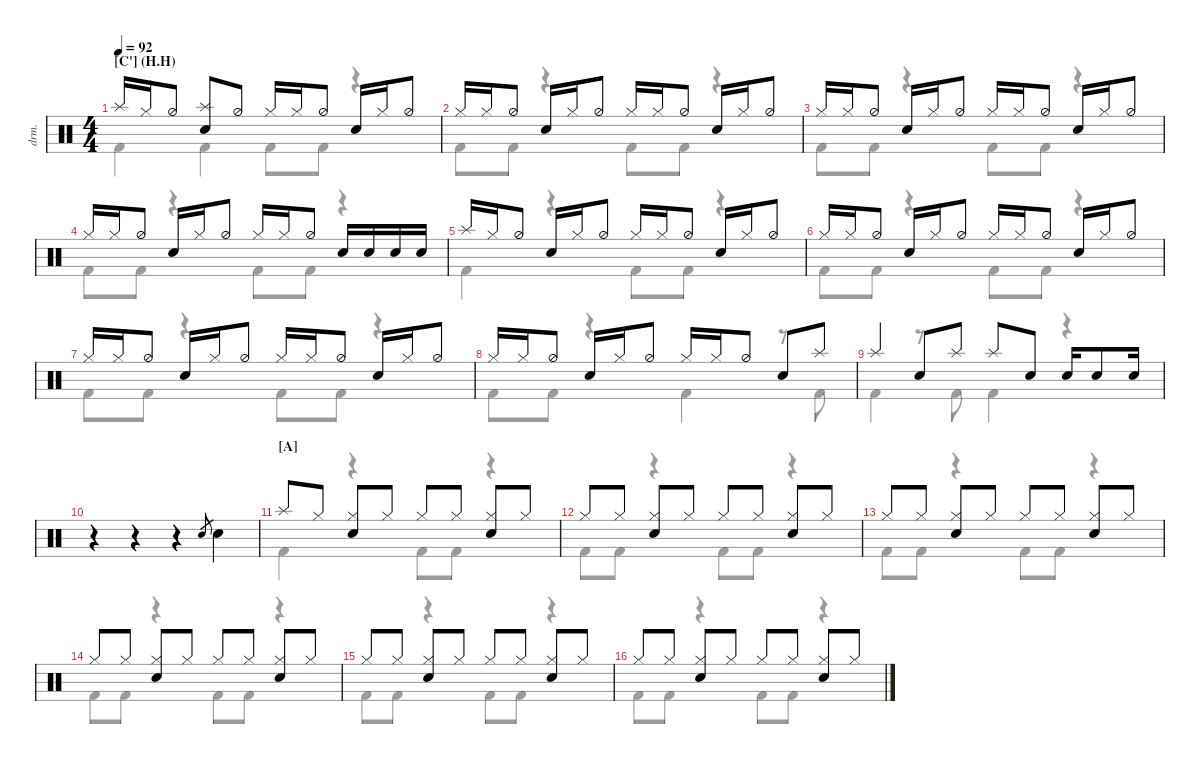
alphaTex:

\defaultSystemsLayout 4
\hideDynamics
\bracketExtendMode nobrackets
\track ("Drumkit" "drm.") {defaultSystemsLayout 4 instrument percussion}
\staff {score}
\articulation defaults
\voice
\ts (4 4)
\section ("C'" "(H.H)")
\tempo 92
\clef neutral
\ks c "Splash (hit)".16{dy mf beam Up} "Hi-Hat (closed)".16{beam Up} "Hi-Hat (half)".8{beam Up}
("Splash (hit)" "Snare (hit) 2").8{beam Up} "Hi-Hat (half)".8{beam Up} "Hi-Hat (closed)".16{beam Up} "Hi-Hat (closed)".16{beam Up} "Hi-Hat (half)".8{beam Up} "Snare (hit) 2".16{beam Up} "Hi-Hat (closed)".16{beam Up} "Hi-Hat (half)".8{beam Up} |
"Hi-Hat (closed)".16{beam Up} "Hi-Hat (closed)".16{beam Up} "Hi-Hat (half)".8{beam Up} "Snare (hit) 2".16{beam Up} "Hi-Hat (closed)".16{beam Up} "Hi-Hat (half)".8{beam Up} "Hi-Hat (closed)".16{beam Up} "Hi-Hat (closed)".16{beam Up} "Hi-Hat (half)".8{beam Up} "Snare (hit) 2".16{beam Up} "Hi-Hat (closed)".16{beam Up} "Hi-Hat (half)".8{beam Up} |
"Hi-Hat (closed)".16{beam Up} "Hi-Hat (closed)".16{beam Up} "Hi-Hat (half)".8{beam Up} "Snare (hit) 2".16{beam Up} "Hi-Hat (closed)".16{beam Up} "Hi-Hat (half)".8{beam Up} "Hi-Hat (closed)".16{beam Up} "Hi-Hat (closed)".16{beam Up} "Hi-Hat (half)".8{beam Up} "Snare (hit) 2".16{beam Up} "Hi-Hat (closed)".16{beam Up} "Hi-Hat (half)".8{beam Up} |
"Hi-Hat (closed)".16{beam Up} "Hi-Hat (closed)".16{beam Up} "Hi-Hat (half)".8{beam Up} "Snare (hit) 2".16{beam Up} "Hi-Hat (closed)".16{beam Up} "Hi-Hat (half)".8{beam Up} "Hi-Hat (closed)".16{beam Up} "Hi-Hat (closed)".16{beam Up} "Hi-Hat (half)".8{beam Up} "Snare (hit) 2".16{beam Up} "Snare (hit) 2".16{beam Up} "Snare (hit) 2".16{beam Up} "Snare (hit) 2".16{beam Up} |
"Splash (hit)".16{beam Up} "Hi-Hat (closed)".16{beam Up} "Hi-Hat (half)".8{beam Up} "Snare (hit) 2".16{beam Up} "Hi-Hat (closed)".16{beam Up} "Hi-Hat (half)".8{beam Up} "Hi-Hat (closed)".16{beam Up} "Hi-Hat (closed)".16{beam Up} "Hi-Hat (half)".8{beam Up} "Snare (hit) 2".16{beam Up} "Hi-Hat (closed)".16{beam Up} "Hi-Hat (half)".8{beam Up} |
"Hi-Hat (closed)".16{beam Up} "Hi-Hat (closed)".16{beam Up} "Hi-Hat (half)".8{beam Up} "Snare (hit) 2".16{beam Up} "Hi-Hat (closed)".16{beam Up} "Hi-Hat (half)".8{beam Up} "Hi-Hat (closed)".16{beam Up} "Hi-Hat (closed)".16{beam Up} "Hi-Hat (half)".8{beam Up} "Snare (hit) 2".16{beam Up} "Hi-Hat (closed)".16{beam Up} "Hi-Hat (half)".8{beam Up} |
"Hi-Hat (closed)".16{beam Up} "Hi-Hat (closed)".16{beam Up} "Hi-Hat (half)".8{beam Up} "Snare (hit) 2".16{beam Up} "Hi-Hat (closed)".16{beam Up} "Hi-Hat (half)".8{beam Up} "Hi-Hat (closed)".16{beam Up} "Hi-Hat (closed)".16{beam Up} "Hi-Hat (half)".8{beam Up} "Snare (hit) 2".16{beam Up} "Hi-Hat (closed)".16{beam Up} "Hi-Hat (half)".8{beam Up} |
"Hi-Hat (closed)".16{beam Up} "Hi-Hat (closed)".16{beam Up} "Hi-Hat (half)".8{beam Up} "Snare (hit) 2".16{beam Up} "Hi-Hat (closed)".16{beam Up} "Hi-Hat (half)".8{beam Up} "Hi-Hat (closed)".16{beam Up} "Hi-Hat (closed)".16{beam Up} "Hi-Hat (half)".8{beam Up} "Snare (hit) 2".8{beam Up} "Splash (hit)".8{beam Up} |
"Splash (hit)".4{beam Up} "Snare (hit) 2".8{beam Up} "Splash (hit)".8{beam Up} "Splash (hit)".8{beam Up} "Snare (hit) 2".8{beam Up} "Snare (hit) 2".16{beam Up} "Snare (hit) 2".8{beam Up} "Snare (hit) 2".16{beam Up} |
r.4{beam Down} r.4{beam Down} r.4{beam Down} "Snare (hit) 2".8{gr beam Up} "Snare (hit) 2".4{beam Down} |
\section ("A" "")
"Splash (hit)".8{beam Up} "Hi-Hat (closed)".8{beam Up} ("Hi-Hat (closed)" "Snare (hit) 2").8{beam Up} "Hi-Hat (closed)".8{beam Up} "Hi-Hat (closed)".8{beam Up} "Hi-Hat (closed)".8{beam Up} ("Hi-Hat (closed)" "Snare (hit) 2").8{beam Up} "Hi-Hat (closed)".8{beam Up} |
"Hi-Hat (closed)".8{beam Up} "Hi-Hat (closed)".8{beam Up} ("Hi-Hat (closed)" "Snare (hit) 2").8{beam Up} "Hi-Hat (closed)".8{beam Up} "Hi-Hat (closed)".8{beam Up} "Hi-Hat (closed)".8{beam Up} ("Hi-Hat (closed)" "Snare (hit) 2").8{beam Up} "Hi-Hat (closed)".8{beam Up} |
"Hi-Hat (closed)".8{beam Up} "Hi-Hat (closed)".8{beam Up} ("Hi-Hat (closed)" "Snare (hit) 2").8{beam Up} "Hi-Hat (closed)".8{beam Up} "Hi-Hat (closed)".8{beam Up} "Hi-Hat (closed)".8{beam Up} ("Hi-Hat (closed)" "Snare (hit) 2").8{beam Up} "Hi-Hat (closed)".8{beam Up} |
"Hi-Hat (closed)".8{beam Up} "Hi-Hat (closed)".8{beam Up} ("Hi-Hat (closed)" "Snare (hit) 2").8{beam Up} "Hi-Hat (closed)".8{beam Up} "Hi-Hat (closed)".8{beam Up} "Hi-Hat (closed)".8{beam Up} ("Hi-Hat (closed)" "Snare (hit) 2").8{beam Up} "Hi-Hat (closed)".8{beam Up} |
"Hi-Hat (closed)".8{beam Up} "Hi-Hat (closed)".8{beam Up} ("Hi-Hat (closed)" "Snare (hit) 2").8{beam Up} "Hi-Hat (closed)".8{beam Up} "Hi-Hat (closed)".8{beam Up} "Hi-Hat (closed)".8{beam Up} ("Hi-Hat (closed)" "Snare (hit) 2").8{beam Up} "Hi-Hat (closed)".8{beam Up} |
"Hi-Hat (closed)".8{beam Up} "Hi-Hat (closed)".8{beam Up} ("Hi-Hat (closed)" "Snare (hit) 2").8{beam Up} "Hi-Hat (closed)".8{beam Up} "Hi-Hat (closed)".8{beam Up} "Hi-Hat (closed)".8{beam Up} ("Hi-Hat (closed)" "Snare (hit) 2").8{beam Up} "Hi-Hat (closed)".8{beam Up}
\voice
\clef neutral
\ottava regular
\simile none
\ks c "Kick (hit) 2".4{dy mf beam Down} "Kick (hit) 2".4{beam Down} "Kick (hit) 2".8{beam Down} "Kick (hit) 2".8{beam Down}
r.4{beam Down} |
"Kick (hit) 2".8{beam Down} "Kick (hit) 2".8{beam Down} r.4{beam Down} "Kick (hit) 2".8{beam Down} "Kick (hit) 2".8{beam Down} r.4{beam Down} |
"Kick (hit) 2".8{beam Down} "Kick (hit) 2".8{beam Down} r.4{beam Down} "Kick (hit) 2".8{beam Down} "Kick (hit) 2".8{beam Down} r.4{beam Down} |
"Kick (hit) 2".8{beam Down} "Kick (hit) 2".8{beam Down} r.4{beam Down} "Kick (hit) 2".8{beam Down} "Kick (hit) 2".8{beam Down} r.4{beam Down} |
"Kick (hit) 2".4{beam Down} r.4{beam Down} "Kick (hit) 2".8{beam Down} "Kick (hit) 2".8{beam Down} r.4{beam Down} |
"Kick (hit) 2".8{beam Down} "Kick (hit) 2".8{beam Down} r.4{beam Down} "Kick (hit) 2".8{beam Down} "Kick (hit) 2".8{beam Down} r.4{beam Down} |
"Kick (hit) 2".8{beam Down} "Kick (hit) 2".8{beam Down} r.4{beam Down} "Kick (hit) 2".8{beam Down} "Kick (hit) 2".8{beam Down} r.4{beam Down} |
"Kick (hit) 2".8{beam Down} "Kick (hit) 2".8{beam Down} r.4{beam Down} "Kick (hit) 2".4{beam Down} r.8{beam Down} "Kick (hit) 2".8{beam Down} |
"Kick (hit) 2".4{beam Down} r.8{beam Down} "Kick (hit) 2".8{beam Down} "Kick (hit) 2".4{beam Down} r.4{beam Down} |
|
"Kick (hit) 2".4{beam Down} r.4{beam Down} "Kick (hit) 2".8{beam Down} "Kick (hit) 2".8{beam Down} r.4{beam Down} |
"Kick (hit) 2".8{beam Down} "Kick (hit) 2".8{beam Down} r.4{beam Down} "Kick (hit) 2".8{beam Down} "Kick (hit) 2".8{beam Down} r.4{beam Down} |
"Kick (hit) 2".8{beam Down} "Kick (hit) 2".8{beam Down} r.4{beam Down} "Kick (hit) 2".8{beam Down} "Kick (hit) 2".8{beam Down} r.4{beam Down} |
"Kick (hit) 2".8{beam Down} "Kick (hit) 2".8{beam Down} r.4{beam Down} "Kick (hit) 2".8{beam Down} "Kick (hit) 2".8{beam Down} r.4{beam Down} |
"Kick (hit) 2".8{beam Down} "Kick (hit) 2".8{beam Down} r.4{beam Down} "Kick (hit) 2".8{beam Down} "Kick (hit) 2".8{beam Down} r.4{beam Down} |
"Kick (hit) 2".8{beam Down} "Kick (hit) 2".8{beam Down} r.4{beam Down} "Kick (hit) 2".8{beam Down} "Kick (hit) 2".8{beam Down} r.4{beam Down}
